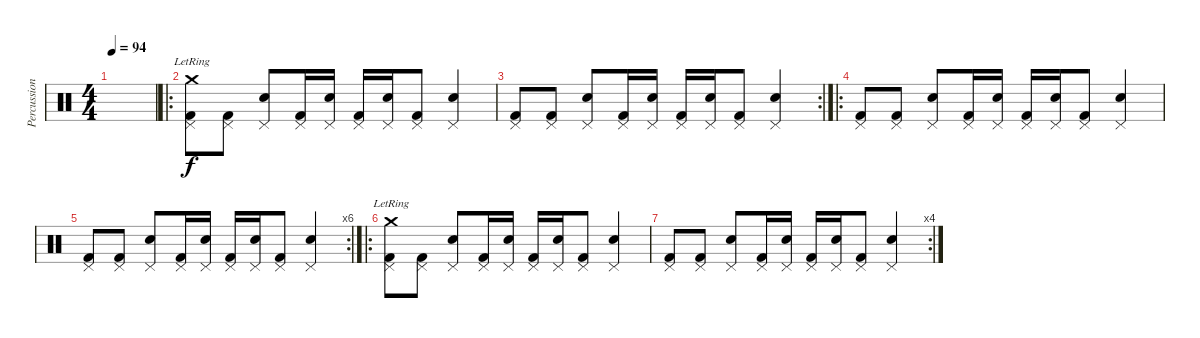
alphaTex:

\track ("Percussioni" "Percussion") {instrument percussion}
\staff {score}
\articulation defaults
\ts (4 4)
\tempo 94
\clef neutral
\ks c
|
\ro
("Crash medium (hit)"{lr} "Pedal Hi-Hat (hit)" "Kick (hit) 2").8 ("Pedal Hi-Hat (hit)" "Kick (hit) 2").8 ("Pedal Hi-Hat (hit)" "Snare (hit) 2").8 ("Pedal Hi-Hat (hit)" "Kick (hit) 2").16 ("Pedal Hi-Hat (hit)" "Snare (hit) 2").16 ("Pedal Hi-Hat (hit)" "Kick (hit) 2").16 ("Pedal Hi-Hat (hit)" "Snare (hit) 2").16 ("Pedal Hi-Hat (hit)" "Kick (hit) 2").8 ("Pedal Hi-Hat (hit)" "Snare (hit) 2").4 |
\rc 2
("Pedal Hi-Hat (hit)" "Kick (hit) 2").8 ("Pedal Hi-Hat (hit)" "Kick (hit) 2").8 ("Pedal Hi-Hat (hit)" "Snare (hit) 2").8 ("Pedal Hi-Hat (hit)" "Kick (hit) 2").16 ("Pedal Hi-Hat (hit)" "Snare (hit) 2").16 ("Pedal Hi-Hat (hit)" "Kick (hit) 2").16 ("Pedal Hi-Hat (hit)" "Snare (hit) 2").16 ("Pedal Hi-Hat (hit)" "Kick (hit) 2").8 ("Pedal Hi-Hat (hit)" "Snare (hit) 2").4 |
\ro
("Pedal Hi-Hat (hit)" "Kick (hit) 2").8 ("Pedal Hi-Hat (hit)" "Kick (hit) 2").8 ("Pedal Hi-Hat (hit)" "Snare (hit) 2").8 ("Pedal Hi-Hat (hit)" "Kick (hit) 2").16 ("Pedal Hi-Hat (hit)" "Snare (hit) 2").16 ("Pedal Hi-Hat (hit)" "Kick (hit) 2").16 ("Pedal Hi-Hat (hit)" "Snare (hit) 2").16 ("Pedal Hi-Hat (hit)" "Kick (hit) 2").8 ("Pedal Hi-Hat (hit)" "Snare (hit) 2").4 |
\rc 6
("Pedal Hi-Hat (hit)" "Kick (hit) 2").8 ("Pedal Hi-Hat (hit)" "Kick (hit) 2").8 ("Pedal Hi-Hat (hit)" "Snare (hit) 2").8 ("Pedal Hi-Hat (hit)" "Kick (hit) 2").16 ("Pedal Hi-Hat (hit)" "Snare (hit) 2").16 ("Pedal Hi-Hat (hit)" "Kick (hit) 2").16 ("Pedal Hi-Hat (hit)" "Snare (hit) 2").16 ("Pedal Hi-Hat (hit)" "Kick (hit) 2").8 ("Pedal Hi-Hat (hit)" "Snare (hit) 2").4 |
\ro
("Crash medium (hit)"{lr} "Pedal Hi-Hat (hit)" "Kick (hit) 2").8 ("Pedal Hi-Hat (hit)" "Kick (hit) 2").8 ("Pedal Hi-Hat (hit)" "Snare (hit) 2").8 ("Pedal Hi-Hat (hit)" "Kick (hit) 2").16 ("Pedal Hi-Hat (hit)" "Snare (hit) 2").16 ("Pedal Hi-Hat (hit)" "Kick (hit) 2").16 ("Pedal Hi-Hat (hit)" "Snare (hit) 2").16 ("Pedal Hi-Hat (hit)" "Kick (hit) 2").8 ("Pedal Hi-Hat (hit)" "Snare (hit) 2").4 |
\rc 4
("Pedal Hi-Hat (hit)" "Kick (hit) 2").8 ("Pedal Hi-Hat (hit)" "Kick (hit) 2").8 ("Pedal Hi-Hat (hit)" "Snare (hit) 2").8 ("Pedal Hi-Hat (hit)" "Kick (hit) 2").16 ("Pedal Hi-Hat (hit)" "Snare (hit) 2").16 ("Pedal Hi-Hat (hit)" "Kick (hit) 2").16 ("Pedal Hi-Hat (hit)" "Snare (hit) 2").16 ("Pedal Hi-Hat (hit)" "Kick (hit) 2").8 ("Pedal Hi-Hat (hit)" "Snare (hit) 2").4
